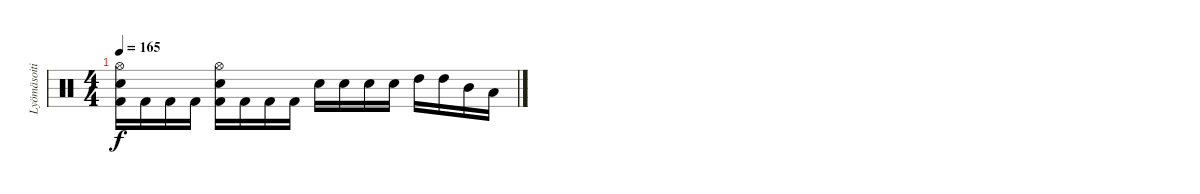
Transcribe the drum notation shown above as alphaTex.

\track ("Lyömäsoitin" "Lyömäsoiti") {instrument percussion}
\staff {score}
\articulation defaults
\ts (4 4)
\tempo 165
\clef neutral
\ks c
("Hi-Hat (open)" "Electric Snare (hit)" "Kick (hit) 2").16{dy f} "Kick (hit) 2".16 "Kick (hit) 2".16 "Kick (hit) 2".16 ("Hi-Hat (open)" "Electric Snare (hit)" "Kick (hit) 2").16 "Kick (hit) 2".16 "Kick (hit) 2".16 "Kick (hit) 2".16 "Electric Snare (hit)".16 "Electric Snare (hit)".16 "Electric Snare (hit)".16 "Electric Snare (hit)".16 "High Tom (hit)".16 "High Tom (hit)".16 "Mid Tom (hit)".16 "Low Tom (hit)".16
